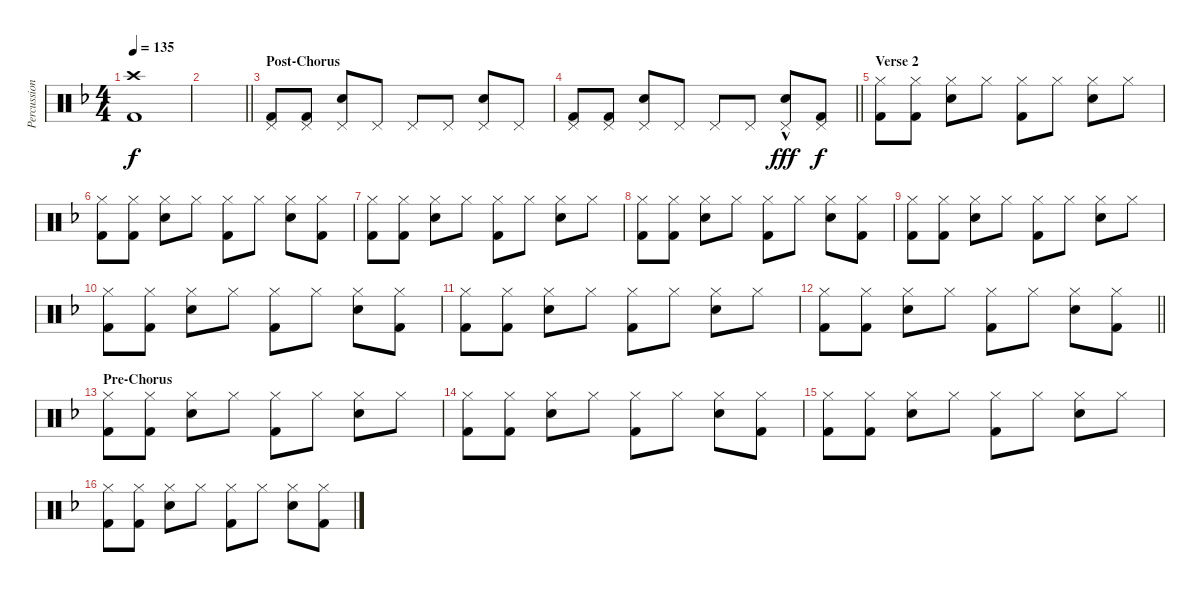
\track ("Percussion" "Percussion") {instrument percussion}
\staff {score}
\articulation defaults
\ts (4 4)
\tempo 135
\clef neutral
\ks f
("Crash high (hit)" "Kick (hit) 2").1{dy f} |
\barLineRight lightlight
|
\section ("" "Post-Chorus")
("Pedal Hi-Hat (hit)" "Kick (hit) 2").8 ("Pedal Hi-Hat (hit)" "Kick (hit) 2").8 ("Pedal Hi-Hat (hit)" "Snare (hit) 2").8 "Pedal Hi-Hat (hit)".8 "Pedal Hi-Hat (hit)".8 "Pedal Hi-Hat (hit)".8 ("Pedal Hi-Hat (hit)" "Snare (hit) 2").8 "Pedal Hi-Hat (hit)".8 |
\barLineRight lightlight
("Pedal Hi-Hat (hit)" "Kick (hit) 2").8 ("Pedal Hi-Hat (hit)" "Kick (hit) 2").8 ("Pedal Hi-Hat (hit)" "Snare (hit) 2").8 "Pedal Hi-Hat (hit)".8 "Pedal Hi-Hat (hit)".8 "Pedal Hi-Hat (hit)".8 ("Pedal Hi-Hat (hit)" "Snare (hit) 2"{hac}).8{dy fff} ("Pedal Hi-Hat (hit)" "Kick (hit) 2").8{dy f} |
\section ("" "Verse 2")
("Hi-Hat (closed)" "Kick (hit) 2").8 ("Hi-Hat (closed)" "Kick (hit) 2").8 ("Hi-Hat (closed)" "Snare (hit) 2").8 "Hi-Hat (closed)".8 ("Hi-Hat (closed)" "Kick (hit) 2").8 "Hi-Hat (closed)".8 ("Hi-Hat (closed)" "Snare (hit) 2").8 "Hi-Hat (closed)".8 |
("Hi-Hat (closed)" "Kick (hit) 2").8 ("Hi-Hat (closed)" "Kick (hit) 2").8 ("Hi-Hat (closed)" "Snare (hit) 2").8 "Hi-Hat (closed)".8 ("Hi-Hat (closed)" "Kick (hit) 2").8 "Hi-Hat (closed)".8 ("Hi-Hat (closed)" "Snare (hit) 2").8 ("Hi-Hat (closed)" "Kick (hit) 2").8 |
("Hi-Hat (closed)" "Kick (hit) 2").8 ("Hi-Hat (closed)" "Kick (hit) 2").8 ("Hi-Hat (closed)" "Snare (hit) 2").8 "Hi-Hat (closed)".8 ("Hi-Hat (closed)" "Kick (hit) 2").8 "Hi-Hat (closed)".8 ("Hi-Hat (closed)" "Snare (hit) 2").8 "Hi-Hat (closed)".8 |
("Hi-Hat (closed)" "Kick (hit) 2").8 ("Hi-Hat (closed)" "Kick (hit) 2").8 ("Hi-Hat (closed)" "Snare (hit) 2").8 "Hi-Hat (closed)".8 ("Hi-Hat (closed)" "Kick (hit) 2").8 "Hi-Hat (closed)".8 ("Hi-Hat (closed)" "Snare (hit) 2").8 ("Hi-Hat (closed)" "Kick (hit) 2").8 |
("Hi-Hat (closed)" "Kick (hit) 2").8 ("Hi-Hat (closed)" "Kick (hit) 2").8 ("Hi-Hat (closed)" "Snare (hit) 2").8 "Hi-Hat (closed)".8 ("Hi-Hat (closed)" "Kick (hit) 2").8 "Hi-Hat (closed)".8 ("Hi-Hat (closed)" "Snare (hit) 2").8 "Hi-Hat (closed)".8 |
("Hi-Hat (closed)" "Kick (hit) 2").8 ("Hi-Hat (closed)" "Kick (hit) 2").8 ("Hi-Hat (closed)" "Snare (hit) 2").8 "Hi-Hat (closed)".8 ("Hi-Hat (closed)" "Kick (hit) 2").8 "Hi-Hat (closed)".8 ("Hi-Hat (closed)" "Snare (hit) 2").8 ("Hi-Hat (closed)" "Kick (hit) 2").8 |
("Hi-Hat (closed)" "Kick (hit) 2").8 ("Hi-Hat (closed)" "Kick (hit) 2").8 ("Hi-Hat (closed)" "Snare (hit) 2").8 "Hi-Hat (closed)".8 ("Hi-Hat (closed)" "Kick (hit) 2").8 "Hi-Hat (closed)".8 ("Hi-Hat (closed)" "Snare (hit) 2").8 "Hi-Hat (closed)".8 |
\barLineRight lightlight
("Hi-Hat (closed)" "Kick (hit) 2").8 ("Hi-Hat (closed)" "Kick (hit) 2").8 ("Hi-Hat (closed)" "Snare (hit) 2").8 "Hi-Hat (closed)".8 ("Hi-Hat (closed)" "Kick (hit) 2").8 "Hi-Hat (closed)".8 ("Hi-Hat (closed)" "Snare (hit) 2").8 ("Hi-Hat (closed)" "Kick (hit) 2").8 |
\section ("" "Pre-Chorus")
("Hi-Hat (closed)" "Kick (hit) 2").8 ("Hi-Hat (closed)" "Kick (hit) 2").8 ("Hi-Hat (closed)" "Snare (hit) 2").8 "Hi-Hat (closed)".8 ("Hi-Hat (closed)" "Kick (hit) 2").8 "Hi-Hat (closed)".8 ("Hi-Hat (closed)" "Snare (hit) 2").8 "Hi-Hat (closed)".8 |
("Hi-Hat (closed)" "Kick (hit) 2").8 ("Hi-Hat (closed)" "Kick (hit) 2").8 ("Hi-Hat (closed)" "Snare (hit) 2").8 "Hi-Hat (closed)".8 ("Hi-Hat (closed)" "Kick (hit) 2").8 "Hi-Hat (closed)".8 ("Hi-Hat (closed)" "Snare (hit) 2").8 ("Hi-Hat (closed)" "Kick (hit) 2").8 |
("Hi-Hat (closed)" "Kick (hit) 2").8 ("Hi-Hat (closed)" "Kick (hit) 2").8 ("Hi-Hat (closed)" "Snare (hit) 2").8 "Hi-Hat (closed)".8 ("Hi-Hat (closed)" "Kick (hit) 2").8 "Hi-Hat (closed)".8 ("Hi-Hat (closed)" "Snare (hit) 2").8 "Hi-Hat (closed)".8 |
("Hi-Hat (closed)" "Kick (hit) 2").8 ("Hi-Hat (closed)" "Kick (hit) 2").8 ("Hi-Hat (closed)" "Snare (hit) 2").8 "Hi-Hat (closed)".8 ("Hi-Hat (closed)" "Kick (hit) 2").8 "Hi-Hat (closed)".8 ("Hi-Hat (closed)" "Snare (hit) 2").8 ("Hi-Hat (closed)" "Kick (hit) 2").8
